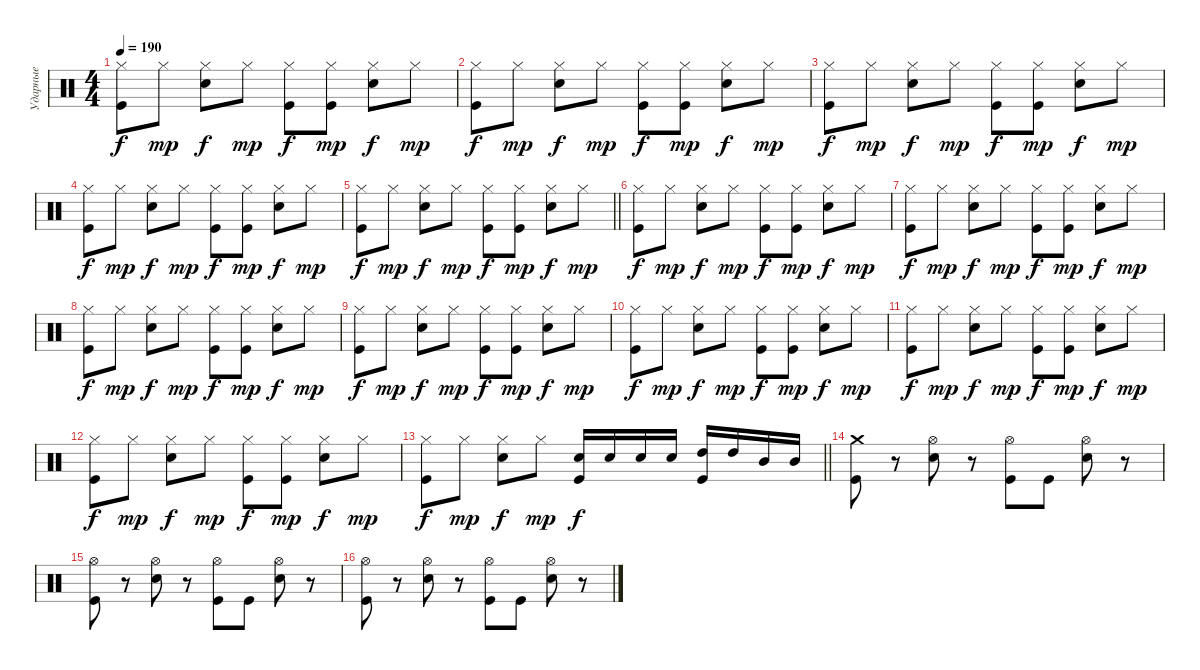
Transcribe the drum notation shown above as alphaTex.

\track ("Ударные" "Ударные") {instrument percussion}
\staff {score}
\articulation defaults
\ts (4 4)
\tempo 190
\clef neutral
\ks c
("Hi-Hat (closed)" "Kick (hit)").8{dy f} "Hi-Hat (closed)".8{dy mp} ("Hi-Hat (closed)" "Electric Snare (hit)").8{dy f} "Hi-Hat (closed)".8{dy mp} ("Hi-Hat (closed)" "Kick (hit)").8{dy f} ("Hi-Hat (closed)" "Kick (hit)").8{dy mp} ("Hi-Hat (closed)" "Electric Snare (hit)").8{dy f} "Hi-Hat (closed)".8{dy mp} |
("Hi-Hat (closed)" "Kick (hit)").8{dy f} "Hi-Hat (closed)".8{dy mp} ("Hi-Hat (closed)" "Electric Snare (hit)").8{dy f} "Hi-Hat (closed)".8{dy mp} ("Hi-Hat (closed)" "Kick (hit)").8{dy f} ("Hi-Hat (closed)" "Kick (hit)").8{dy mp} ("Hi-Hat (closed)" "Electric Snare (hit)").8{dy f} "Hi-Hat (closed)".8{dy mp} |
("Hi-Hat (closed)" "Kick (hit)").8{dy f} "Hi-Hat (closed)".8{dy mp} ("Hi-Hat (closed)" "Electric Snare (hit)").8{dy f} "Hi-Hat (closed)".8{dy mp} ("Hi-Hat (closed)" "Kick (hit)").8{dy f} ("Hi-Hat (closed)" "Kick (hit)").8{dy mp} ("Hi-Hat (closed)" "Electric Snare (hit)").8{dy f} "Hi-Hat (closed)".8{dy mp} |
("Hi-Hat (closed)" "Kick (hit)").8{dy f} "Hi-Hat (closed)".8{dy mp} ("Hi-Hat (closed)" "Electric Snare (hit)").8{dy f} "Hi-Hat (closed)".8{dy mp} ("Hi-Hat (closed)" "Kick (hit)").8{dy f} ("Hi-Hat (closed)" "Kick (hit)").8{dy mp} ("Hi-Hat (closed)" "Electric Snare (hit)").8{dy f} "Hi-Hat (closed)".8{dy mp} |
\barLineRight lightlight
("Hi-Hat (closed)" "Kick (hit)").8{dy f} "Hi-Hat (closed)".8{dy mp} ("Hi-Hat (closed)" "Electric Snare (hit)").8{dy f} "Hi-Hat (closed)".8{dy mp} ("Hi-Hat (closed)" "Kick (hit)").8{dy f} ("Hi-Hat (closed)" "Kick (hit)").8{dy mp} ("Hi-Hat (closed)" "Electric Snare (hit)").8{dy f} "Hi-Hat (closed)".8{dy mp} |
\section ("" " ")
("Hi-Hat (closed)" "Kick (hit)").8{dy f} "Hi-Hat (closed)".8{dy mp} ("Hi-Hat (closed)" "Electric Snare (hit)").8{dy f} "Hi-Hat (closed)".8{dy mp} ("Hi-Hat (closed)" "Kick (hit)").8{dy f} ("Hi-Hat (closed)" "Kick (hit)").8{dy mp} ("Hi-Hat (closed)" "Electric Snare (hit)").8{dy f} "Hi-Hat (closed)".8{dy mp} |
("Hi-Hat (closed)" "Kick (hit)").8{dy f} "Hi-Hat (closed)".8{dy mp} ("Hi-Hat (closed)" "Electric Snare (hit)").8{dy f} "Hi-Hat (closed)".8{dy mp} ("Hi-Hat (closed)" "Kick (hit)").8{dy f} ("Hi-Hat (closed)" "Kick (hit)").8{dy mp} ("Hi-Hat (closed)" "Electric Snare (hit)").8{dy f} "Hi-Hat (closed)".8{dy mp} |
("Hi-Hat (closed)" "Kick (hit)").8{dy f} "Hi-Hat (closed)".8{dy mp} ("Hi-Hat (closed)" "Electric Snare (hit)").8{dy f} "Hi-Hat (closed)".8{dy mp} ("Hi-Hat (closed)" "Kick (hit)").8{dy f} ("Hi-Hat (closed)" "Kick (hit)").8{dy mp} ("Hi-Hat (closed)" "Electric Snare (hit)").8{dy f} "Hi-Hat (closed)".8{dy mp} |
("Hi-Hat (closed)" "Kick (hit)").8{dy f} "Hi-Hat (closed)".8{dy mp} ("Hi-Hat (closed)" "Electric Snare (hit)").8{dy f} "Hi-Hat (closed)".8{dy mp} ("Hi-Hat (closed)" "Kick (hit)").8{dy f} ("Hi-Hat (closed)" "Kick (hit)").8{dy mp} ("Hi-Hat (closed)" "Electric Snare (hit)").8{dy f} "Hi-Hat (closed)".8{dy mp} |
("Hi-Hat (closed)" "Kick (hit)").8{dy f} "Hi-Hat (closed)".8{dy mp} ("Hi-Hat (closed)" "Electric Snare (hit)").8{dy f} "Hi-Hat (closed)".8{dy mp} ("Hi-Hat (closed)" "Kick (hit)").8{dy f} ("Hi-Hat (closed)" "Kick (hit)").8{dy mp} ("Hi-Hat (closed)" "Electric Snare (hit)").8{dy f} "Hi-Hat (closed)".8{dy mp} |
("Hi-Hat (closed)" "Kick (hit)").8{dy f} "Hi-Hat (closed)".8{dy mp} ("Hi-Hat (closed)" "Electric Snare (hit)").8{dy f} "Hi-Hat (closed)".8{dy mp} ("Hi-Hat (closed)" "Kick (hit)").8{dy f} ("Hi-Hat (closed)" "Kick (hit)").8{dy mp} ("Hi-Hat (closed)" "Electric Snare (hit)").8{dy f} "Hi-Hat (closed)".8{dy mp} |
("Hi-Hat (closed)" "Kick (hit)").8{dy f} "Hi-Hat (closed)".8{dy mp} ("Hi-Hat (closed)" "Electric Snare (hit)").8{dy f} "Hi-Hat (closed)".8{dy mp} ("Hi-Hat (closed)" "Kick (hit)").8{dy f} ("Hi-Hat (closed)" "Kick (hit)").8{dy mp} ("Hi-Hat (closed)" "Electric Snare (hit)").8{dy f} "Hi-Hat (closed)".8{dy mp} |
\barLineRight lightlight
("Hi-Hat (closed)" "Kick (hit)").8{dy f} "Hi-Hat (closed)".8{dy mp} ("Hi-Hat (closed)" "Electric Snare (hit)").8{dy f} "Hi-Hat (closed)".8{dy mp} ("Electric Snare (hit)" "Kick (hit)").16{dy f} "Electric Snare (hit)".16 "Electric Snare (hit)".16 "Electric Snare (hit)".16 ("High Tom (hit)" "Kick (hit)").16 "High Tom (hit)".16 "Mid Tom (hit)".16 "Mid Tom (hit)".16 |
\section ("" " ")
("Crash medium (hit)" "Kick (hit)").8 r.8 ("Hi-Hat (open)" "Electric Snare (hit)").8 r.8 ("Hi-Hat (open)" "Kick (hit)").8 "Kick (hit)".8 ("Hi-Hat (open)" "Electric Snare (hit)").8 r.8 |
("Hi-Hat (open)" "Kick (hit)").8 r.8 ("Hi-Hat (open)" "Electric Snare (hit)").8 r.8 ("Hi-Hat (open)" "Kick (hit)").8 "Kick (hit)".8 ("Hi-Hat (open)" "Electric Snare (hit)").8 r.8 |
("Hi-Hat (open)" "Kick (hit)").8 r.8 ("Hi-Hat (open)" "Electric Snare (hit)").8 r.8 ("Hi-Hat (open)" "Kick (hit)").8 "Kick (hit)".8 ("Hi-Hat (open)" "Electric Snare (hit)").8 r.8
